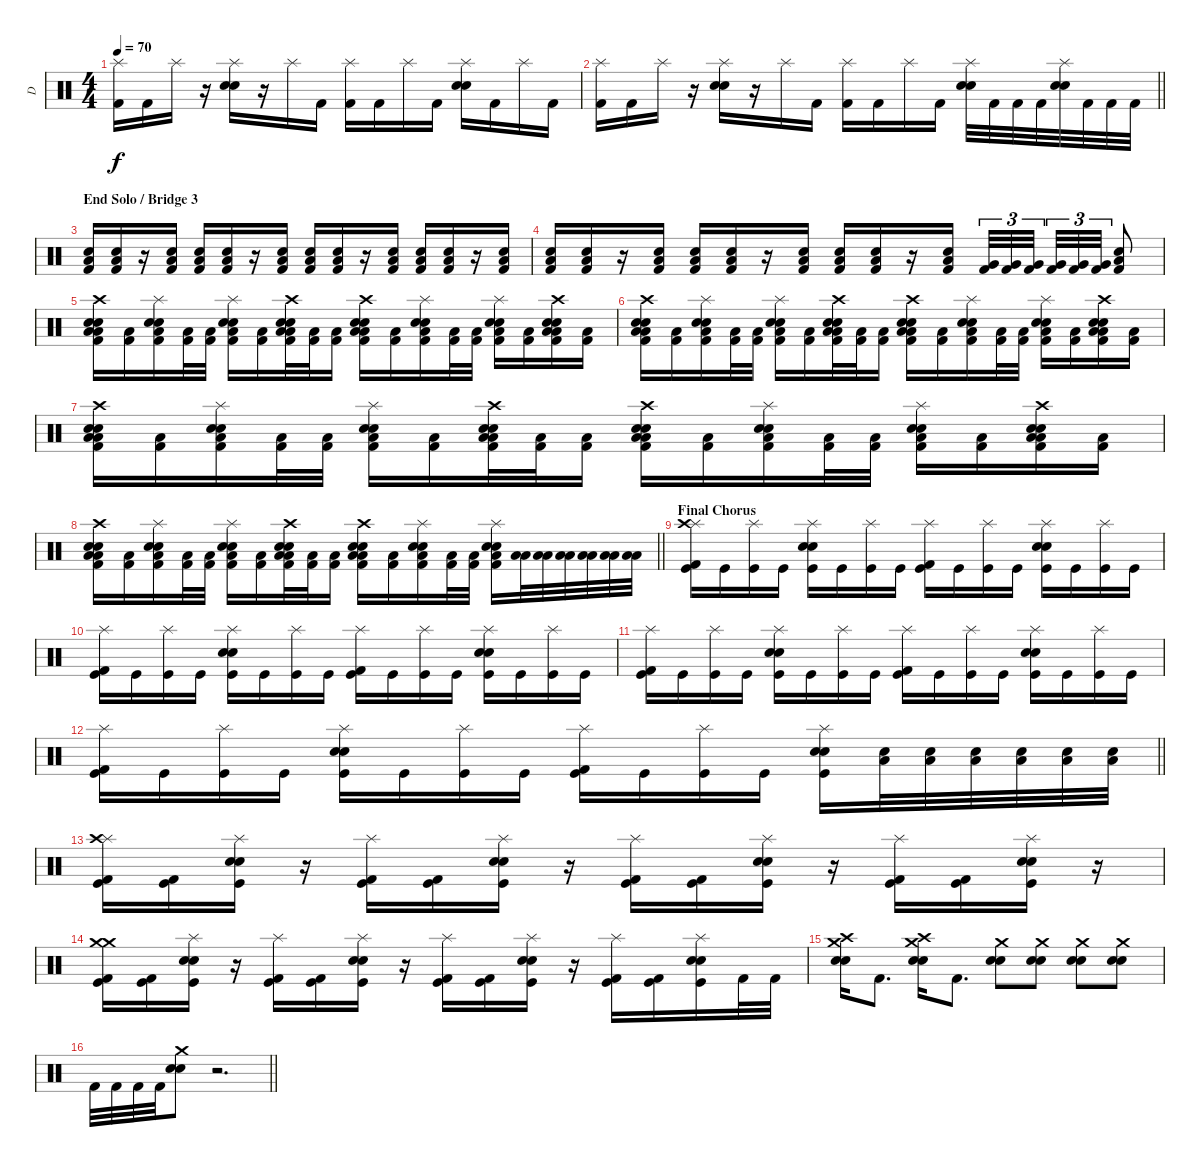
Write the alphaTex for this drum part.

\track ("D" "D") {instrument percussion}
\staff {score}
\articulation defaults
\ts (4 4)
\tempo 70
\clef neutral
\ks c
("Splash (hit)" "Kick (hit) 2").16{dy f} "Kick (hit) 2".16 "Splash (hit)".16 r.16 ("Splash (hit)" "Electric Snare (hit)" "Electric Snare (hit)").16 r.16 "Splash (hit)".16 "Kick (hit) 2".16 ("Splash (hit)" "Kick (hit) 2").16 "Kick (hit) 2".16 "Splash (hit)".16 "Kick (hit) 2".16 ("Splash (hit)" "Electric Snare (hit)" "Electric Snare (hit)").16 "Kick (hit) 2".16 "Splash (hit)".16 "Kick (hit) 2".16 |
\barLineRight lightlight
("Splash (hit)" "Kick (hit) 2").16 "Kick (hit) 2".16 "Splash (hit)".16 r.16 ("Splash (hit)" "Electric Snare (hit)" "Electric Snare (hit)").16 r.16 "Splash (hit)".16 "Kick (hit) 2".16 ("Splash (hit)" "Kick (hit) 2").16 "Kick (hit) 2".16 "Splash (hit)".16 "Kick (hit) 2".16 ("Splash (hit)" "Electric Snare (hit)" "Electric Snare (hit)").32 "Kick (hit) 2".32 "Kick (hit) 2".32 "Kick (hit) 2".32 ("Splash (hit)" "Electric Snare (hit)" "Electric Snare (hit)").32 "Kick (hit) 2".32 "Kick (hit) 2".32 "Kick (hit) 2".32 |
\section ("" "End Solo / Bridge 3")
("Low Tom (hit)" "Electric Snare (hit)" "Kick (hit) 2").16 ("Low Tom (hit)" "Electric Snare (hit)" "Kick (hit) 2").16 r.16 ("Low Tom (hit)" "Electric Snare (hit)" "Kick (hit) 2").16 ("Low Tom (hit)" "Electric Snare (hit)" "Kick (hit) 2").16 ("Low Tom (hit)" "Electric Snare (hit)" "Kick (hit) 2").16 r.16 ("Low Tom (hit)" "Electric Snare (hit)" "Kick (hit) 2").16 ("Low Tom (hit)" "Electric Snare (hit)" "Kick (hit) 2").16 ("Low Tom (hit)" "Electric Snare (hit)" "Kick (hit) 2").16 r.16 ("Low Tom (hit)" "Electric Snare (hit)" "Kick (hit) 2").16 ("Low Tom (hit)" "Electric Snare (hit)" "Kick (hit) 2").16 ("Low Tom (hit)" "Electric Snare (hit)" "Kick (hit) 2").16 r.16 ("Low Tom (hit)" "Electric Snare (hit)" "Kick (hit) 2").16 |
("Low Tom (hit)" "Electric Snare (hit)" "Kick (hit) 2").16 ("Low Tom (hit)" "Electric Snare (hit)" "Kick (hit) 2").16 r.16 ("Low Tom (hit)" "Electric Snare (hit)" "Kick (hit) 2").16 ("Low Tom (hit)" "Electric Snare (hit)" "Kick (hit) 2").16 ("Low Tom (hit)" "Electric Snare (hit)" "Kick (hit) 2").16 r.16 ("Low Tom (hit)" "Electric Snare (hit)" "Kick (hit) 2").16 ("Low Tom (hit)" "Electric Snare (hit)" "Kick (hit) 2").16 ("Low Tom (hit)" "Electric Snare (hit)" "Kick (hit) 2").16 r.16 ("Low Tom (hit)" "Electric Snare (hit)" "Kick (hit) 2").16 ("Very Low Tom (hit)" "Kick (hit) 2").32{tu (3 2)} ("Very Low Tom (hit)" "Kick (hit) 2").32{tu (3 2)} ("Very Low Tom (hit)" "Kick (hit) 2").32{tu (3 2) beam splitsecondary} ("Very Low Tom (hit)" "Kick (hit) 2").32{tu (3 2)} ("Very Low Tom (hit)" "Kick (hit) 2").32{tu (3 2)} ("Very Low Tom (hit)" "Kick (hit) 2").32{tu (3 2)} ("Low Tom (hit)" "Electric Snare (hit)" "Kick (hit) 2").8 |
("Crash high (hit)" "Electric Snare (hit)" "Electric Snare (hit)" "Low Tom (hit)" "Kick (hit) 2" "Low Floor Tom (hit)").16 ("Kick (hit) 2" "Low Floor Tom (hit)").16 ("Splash (hit)" "Electric Snare (hit)" "Electric Snare (hit)" "Kick (hit) 2" "Low Floor Tom (hit)").16 ("Kick (hit) 2" "Low Floor Tom (hit)").32 ("Kick (hit) 2" "Low Floor Tom (hit)").32 ("Splash (hit)" "Electric Snare (hit)" "Electric Snare (hit)" "Kick (hit) 2" "Low Floor Tom (hit)").16 ("Kick (hit) 2" "Low Floor Tom (hit)").16 ("Crash high (hit)" "Electric Snare (hit)" "Electric Snare (hit)" "Low Tom (hit)" "Kick (hit) 2" "Low Floor Tom (hit)").32 ("Kick (hit) 2" "Low Floor Tom (hit)").32 ("Kick (hit) 2" "Low Floor Tom (hit)").16 ("Crash high (hit)" "Electric Snare (hit)" "Electric Snare (hit)" "Low Tom (hit)" "Kick (hit) 2" "Low Floor Tom (hit)").16 ("Kick (hit) 2" "Low Floor Tom (hit)").16 ("Splash (hit)" "Electric Snare (hit)" "Electric Snare (hit)" "Kick (hit) 2" "Low Floor Tom (hit)").16 ("Kick (hit) 2" "Low Floor Tom (hit)").32 ("Kick (hit) 2" "Low Floor Tom (hit)").32 ("Splash (hit)" "Electric Snare (hit)" "Electric Snare (hit)" "Kick (hit) 2" "Low Floor Tom (hit)").16 ("Kick (hit) 2" "Low Floor Tom (hit)").16 ("Crash high (hit)" "Electric Snare (hit)" "Electric Snare (hit)" "Low Tom (hit)" "Kick (hit) 2" "Low Floor Tom (hit)").16 ("Kick (hit) 2" "Low Floor Tom (hit)").16 |
("Crash high (hit)" "Electric Snare (hit)" "Electric Snare (hit)" "Low Tom (hit)" "Kick (hit) 2" "Low Floor Tom (hit)").16 ("Kick (hit) 2" "Low Floor Tom (hit)").16 ("Splash (hit)" "Electric Snare (hit)" "Electric Snare (hit)" "Kick (hit) 2" "Low Floor Tom (hit)").16 ("Kick (hit) 2" "Low Floor Tom (hit)").32 ("Kick (hit) 2" "Low Floor Tom (hit)").32 ("Splash (hit)" "Electric Snare (hit)" "Electric Snare (hit)" "Kick (hit) 2" "Low Floor Tom (hit)").16 ("Kick (hit) 2" "Low Floor Tom (hit)").16 ("Crash high (hit)" "Electric Snare (hit)" "Electric Snare (hit)" "Low Tom (hit)" "Kick (hit) 2" "Low Floor Tom (hit)").32 ("Kick (hit) 2" "Low Floor Tom (hit)").32 ("Kick (hit) 2" "Low Floor Tom (hit)").16 ("Crash high (hit)" "Electric Snare (hit)" "Electric Snare (hit)" "Low Tom (hit)" "Kick (hit) 2" "Low Floor Tom (hit)").16 ("Kick (hit) 2" "Low Floor Tom (hit)").16 ("Splash (hit)" "Electric Snare (hit)" "Electric Snare (hit)" "Kick (hit) 2" "Low Floor Tom (hit)").16 ("Kick (hit) 2" "Low Floor Tom (hit)").32 ("Kick (hit) 2" "Low Floor Tom (hit)").32 ("Splash (hit)" "Electric Snare (hit)" "Electric Snare (hit)" "Kick (hit) 2" "Low Floor Tom (hit)").16 ("Kick (hit) 2" "Low Floor Tom (hit)").16 ("Crash high (hit)" "Electric Snare (hit)" "Electric Snare (hit)" "Low Tom (hit)" "Kick (hit) 2" "Low Floor Tom (hit)").16 ("Kick (hit) 2" "Low Floor Tom (hit)").16 |
("Crash high (hit)" "Electric Snare (hit)" "Electric Snare (hit)" "Low Tom (hit)" "Kick (hit) 2" "Low Floor Tom (hit)").16 ("Kick (hit) 2" "Low Floor Tom (hit)").16 ("Splash (hit)" "Electric Snare (hit)" "Electric Snare (hit)" "Kick (hit) 2" "Low Floor Tom (hit)").16 ("Kick (hit) 2" "Low Floor Tom (hit)").32 ("Kick (hit) 2" "Low Floor Tom (hit)").32 ("Splash (hit)" "Electric Snare (hit)" "Electric Snare (hit)" "Kick (hit) 2" "Low Floor Tom (hit)").16 ("Kick (hit) 2" "Low Floor Tom (hit)").16 ("Crash high (hit)" "Electric Snare (hit)" "Electric Snare (hit)" "Low Tom (hit)" "Kick (hit) 2" "Low Floor Tom (hit)").32 ("Kick (hit) 2" "Low Floor Tom (hit)").32 ("Kick (hit) 2" "Low Floor Tom (hit)").16 ("Crash high (hit)" "Electric Snare (hit)" "Electric Snare (hit)" "Low Tom (hit)" "Kick (hit) 2" "Low Floor Tom (hit)").16 ("Kick (hit) 2" "Low Floor Tom (hit)").16 ("Splash (hit)" "Electric Snare (hit)" "Electric Snare (hit)" "Kick (hit) 2" "Low Floor Tom (hit)").16 ("Kick (hit) 2" "Low Floor Tom (hit)").32 ("Kick (hit) 2" "Low Floor Tom (hit)").32 ("Splash (hit)" "Electric Snare (hit)" "Electric Snare (hit)" "Kick (hit) 2" "Low Floor Tom (hit)").16 ("Kick (hit) 2" "Low Floor Tom (hit)").16 ("Crash high (hit)" "Electric Snare (hit)" "Electric Snare (hit)" "Low Tom (hit)" "Kick (hit) 2" "Low Floor Tom (hit)").16 ("Kick (hit) 2" "Low Floor Tom (hit)").16 |
\barLineRight lightlight
("Crash high (hit)" "Electric Snare (hit)" "Electric Snare (hit)" "Low Tom (hit)" "Kick (hit) 2" "Low Floor Tom (hit)").16 ("Kick (hit) 2" "Low Floor Tom (hit)").16 ("Splash (hit)" "Electric Snare (hit)" "Electric Snare (hit)" "Kick (hit) 2" "Low Floor Tom (hit)").16 ("Kick (hit) 2" "Low Floor Tom (hit)").32 ("Kick (hit) 2" "Low Floor Tom (hit)").32 ("Splash (hit)" "Electric Snare (hit)" "Electric Snare (hit)" "Kick (hit) 2" "Low Floor Tom (hit)").16 ("Kick (hit) 2" "Low Floor Tom (hit)").16 ("Crash high (hit)" "Electric Snare (hit)" "Electric Snare (hit)" "Low Tom (hit)" "Kick (hit) 2" "Low Floor Tom (hit)").32 ("Kick (hit) 2" "Low Floor Tom (hit)").32 ("Kick (hit) 2" "Low Floor Tom (hit)").16 ("Crash high (hit)" "Electric Snare (hit)" "Electric Snare (hit)" "Low Tom (hit)" "Kick (hit) 2" "Low Floor Tom (hit)").16 ("Kick (hit) 2" "Low Floor Tom (hit)").16 ("Splash (hit)" "Electric Snare (hit)" "Electric Snare (hit)" "Kick (hit) 2" "Low Floor Tom (hit)").16 ("Kick (hit) 2" "Low Floor Tom (hit)").32 ("Kick (hit) 2" "Low Floor Tom (hit)").32 ("Splash (hit)" "Electric Snare (hit)" "Electric Snare (hit)" "Kick (hit) 2" "Low Floor Tom (hit)").16 ("Low Tom (hit)" "Low Floor Tom (hit)").32 ("Low Tom (hit)" "Low Floor Tom (hit)").32 ("Low Tom (hit)" "Low Floor Tom (hit)").32 ("Low Tom (hit)" "Low Floor Tom (hit)").32 ("Low Tom (hit)" "Low Floor Tom (hit)").32 ("Low Tom (hit)" "Low Floor Tom (hit)").32 |
\section ("" "Final Chorus")
("Splash (hit)" "Crash high (hit)" "Kick (hit) 2" "Kick (hit)").16 "Kick (hit)".16 ("Splash (hit)" "Kick (hit)").16 "Kick (hit)".16 ("Splash (hit)" "Electric Snare (hit)" "Electric Snare (hit)" "Kick (hit)").16 "Kick (hit)".16 ("Splash (hit)" "Kick (hit)").16 "Kick (hit)".16 ("Splash (hit)" "Kick (hit) 2" "Kick (hit)").16 "Kick (hit)".16 ("Splash (hit)" "Kick (hit)").16 "Kick (hit)".16 ("Splash (hit)" "Electric Snare (hit)" "Electric Snare (hit)" "Kick (hit)").16 "Kick (hit)".16 ("Splash (hit)" "Kick (hit)").16 "Kick (hit)".16 |
("Splash (hit)" "Kick (hit) 2" "Kick (hit)").16 "Kick (hit)".16 ("Splash (hit)" "Kick (hit)").16 "Kick (hit)".16 ("Splash (hit)" "Electric Snare (hit)" "Electric Snare (hit)" "Kick (hit)").16 "Kick (hit)".16 ("Splash (hit)" "Kick (hit)").16 "Kick (hit)".16 ("Splash (hit)" "Kick (hit) 2" "Kick (hit)").16 "Kick (hit)".16 ("Splash (hit)" "Kick (hit)").16 "Kick (hit)".16 ("Splash (hit)" "Electric Snare (hit)" "Electric Snare (hit)" "Kick (hit)").16 "Kick (hit)".16 ("Splash (hit)" "Kick (hit)").16 "Kick (hit)".16 |
("Splash (hit)" "Kick (hit) 2" "Kick (hit)").16 "Kick (hit)".16 ("Splash (hit)" "Kick (hit)").16 "Kick (hit)".16 ("Splash (hit)" "Electric Snare (hit)" "Electric Snare (hit)" "Kick (hit)").16 "Kick (hit)".16 ("Splash (hit)" "Kick (hit)").16 "Kick (hit)".16 ("Splash (hit)" "Kick (hit) 2" "Kick (hit)").16 "Kick (hit)".16 ("Splash (hit)" "Kick (hit)").16 "Kick (hit)".16 ("Splash (hit)" "Electric Snare (hit)" "Electric Snare (hit)" "Kick (hit)").16 "Kick (hit)".16 ("Splash (hit)" "Kick (hit)").16 "Kick (hit)".16 |
\barLineRight lightlight
("Splash (hit)" "Kick (hit) 2" "Kick (hit)").16 "Kick (hit)".16 ("Splash (hit)" "Kick (hit)").16 "Kick (hit)".16 ("Splash (hit)" "Electric Snare (hit)" "Electric Snare (hit)" "Kick (hit)").16 "Kick (hit)".16 ("Splash (hit)" "Kick (hit)").16 "Kick (hit)".16 ("Splash (hit)" "Kick (hit) 2" "Kick (hit)").16 "Kick (hit)".16 ("Splash (hit)" "Kick (hit)").16 "Kick (hit)".16 ("Splash (hit)" "Electric Snare (hit)" "Electric Snare (hit)" "Kick (hit)").16 ("Electric Snare (hit)" "Low Floor Tom (hit)").32 ("Electric Snare (hit)" "Low Floor Tom (hit)").32 ("Electric Snare (hit)" "Low Floor Tom (hit)").32 ("Electric Snare (hit)" "Low Floor Tom (hit)").32 ("Electric Snare (hit)" "Low Floor Tom (hit)").32 ("Electric Snare (hit)" "Low Floor Tom (hit)").32 |
("Splash (hit)" "Crash high (hit)" "Kick (hit) 2" "Kick (hit)").16 ("Kick (hit) 2" "Kick (hit)").16 ("Splash (hit)" "Electric Snare (hit)" "Electric Snare (hit)" "Kick (hit)").16 r.16 ("Splash (hit)" "Kick (hit) 2" "Kick (hit)").16 ("Kick (hit) 2" "Kick (hit)").16 ("Splash (hit)" "Electric Snare (hit)" "Electric Snare (hit)" "Kick (hit)").16 r.16 ("Splash (hit)" "Kick (hit) 2" "Kick (hit)").16 ("Kick (hit) 2" "Kick (hit)").16 ("Splash (hit)" "Electric Snare (hit)" "Electric Snare (hit)" "Kick (hit)").16 r.16 ("Splash (hit)" "Kick (hit) 2" "Kick (hit)").16 ("Kick (hit) 2" "Kick (hit)").16 ("Splash (hit)" "Electric Snare (hit)" "Electric Snare (hit)" "Kick (hit)").16 r.16 |
("Crash medium (hit)" "Crash medium (hit)" "Kick (hit) 2" "Kick (hit)").16 ("Kick (hit) 2" "Kick (hit)").16 ("Splash (hit)" "Electric Snare (hit)" "Electric Snare (hit)" "Kick (hit)").16 r.16 ("Splash (hit)" "Kick (hit) 2" "Kick (hit)").16 ("Kick (hit) 2" "Kick (hit)").16 ("Splash (hit)" "Electric Snare (hit)" "Electric Snare (hit)" "Kick (hit)").16 r.16 ("Splash (hit)" "Kick (hit) 2" "Kick (hit)").16 ("Kick (hit) 2" "Kick (hit)").16 ("Splash (hit)" "Electric Snare (hit)" "Electric Snare (hit)" "Kick (hit)").16 r.16 ("Splash (hit)" "Kick (hit) 2" "Kick (hit)").16 ("Kick (hit) 2" "Kick (hit)").16 ("Splash (hit)" "Electric Snare (hit)" "Electric Snare (hit)" "Kick (hit)").16 "Kick (hit) 2".32 "Kick (hit) 2".32 |
("Crash high (hit)" "Crash medium (hit)" "Electric Snare (hit)" "Electric Snare (hit)").16 "Kick (hit) 2".8{d} ("Crash high (hit)" "Crash medium (hit)" "Electric Snare (hit)" "Electric Snare (hit)").16 "Kick (hit) 2".8{d} ("Crash medium (hit)" "Electric Snare (hit)" "Electric Snare (hit)").8 ("Crash medium (hit)" "Electric Snare (hit)" "Electric Snare (hit)").8 ("Crash medium (hit)" "Electric Snare (hit)" "Electric Snare (hit)").8 ("Crash medium (hit)" "Electric Snare (hit)" "Electric Snare (hit)").8 |
\barLineRight lightlight "Kick (hit) 2".32 "Kick (hit) 2".32 "Kick (hit) 2".32 "Kick (hit) 2".32
("Crash medium (hit)" "Electric Snare (hit)" "Electric Snare (hit)").8 r.2{d}
